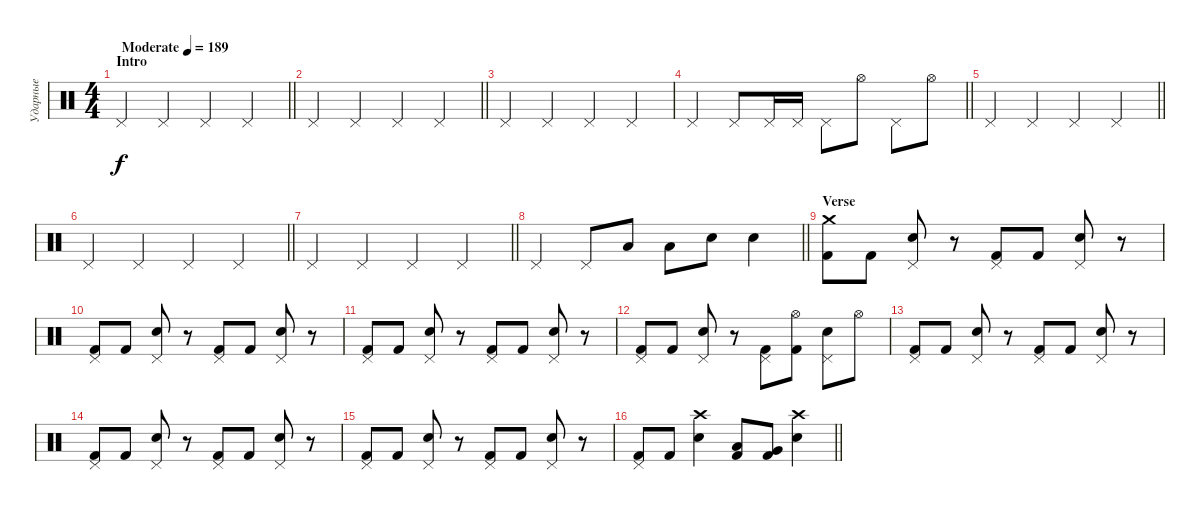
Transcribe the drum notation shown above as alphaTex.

\track ("Ударные" "Ударные") {instrument percussion}
\staff {score}
\articulation defaults
\ts (4 4)
\section ("" "Intro")
\tempo (189 "Moderate")
\clef neutral
\barLineRight lightlight
\ks c "Pedal Hi-Hat (hit)".4{dy f} "Pedal Hi-Hat (hit)".4 "Pedal Hi-Hat (hit)".4 "Pedal Hi-Hat (hit)".4
|
\barLineRight lightlight "Pedal Hi-Hat (hit)".4 "Pedal Hi-Hat (hit)".4 "Pedal Hi-Hat (hit)".4 "Pedal Hi-Hat (hit)".4
|
"Pedal Hi-Hat (hit)".4 "Pedal Hi-Hat (hit)".4 "Pedal Hi-Hat (hit)".4 "Pedal Hi-Hat (hit)".4 |
\barLineRight lightlight "Pedal Hi-Hat (hit)".4 "Pedal Hi-Hat (hit)".8 "Pedal Hi-Hat (hit)".16 "Pedal Hi-Hat (hit)".16 "Pedal Hi-Hat (hit)".8 "Hi-Hat (open)".8 "Pedal Hi-Hat (hit)".8 "Hi-Hat (open)".8
|
\barLineRight lightlight "Pedal Hi-Hat (hit)".4 "Pedal Hi-Hat (hit)".4 "Pedal Hi-Hat (hit)".4 "Pedal Hi-Hat (hit)".4
|
\barLineRight lightlight "Pedal Hi-Hat (hit)".4 "Pedal Hi-Hat (hit)".4 "Pedal Hi-Hat (hit)".4 "Pedal Hi-Hat (hit)".4
|
\barLineRight lightlight "Pedal Hi-Hat (hit)".4 "Pedal Hi-Hat (hit)".4 "Pedal Hi-Hat (hit)".4 "Pedal Hi-Hat (hit)".4
|
\barLineRight lightlight "Pedal Hi-Hat (hit)".4 "Pedal Hi-Hat (hit)".8 "Low Tom (hit)".8 "Low Tom (hit)".8 "Electric Snare (hit)".8 "Electric Snare (hit)".4
|
\section ("" "Verse")
("Crash medium (hit)" "Kick (hit) 2").8 "Kick (hit) 2".8 ("Pedal Hi-Hat (hit)" "Electric Snare (hit)").8 r.8 ("Pedal Hi-Hat (hit)" "Kick (hit) 2").8 "Kick (hit) 2".8 ("Pedal Hi-Hat (hit)" "Electric Snare (hit)").8 r.8 |
("Pedal Hi-Hat (hit)" "Kick (hit) 2").8 "Kick (hit) 2".8 ("Pedal Hi-Hat (hit)" "Electric Snare (hit)").8 r.8 ("Pedal Hi-Hat (hit)" "Kick (hit) 2").8 "Kick (hit) 2".8 ("Pedal Hi-Hat (hit)" "Electric Snare (hit)").8 r.8 |
("Pedal Hi-Hat (hit)" "Kick (hit) 2").8 "Kick (hit) 2".8 ("Pedal Hi-Hat (hit)" "Electric Snare (hit)").8 r.8 ("Pedal Hi-Hat (hit)" "Kick (hit) 2").8 "Kick (hit) 2".8 ("Pedal Hi-Hat (hit)" "Electric Snare (hit)").8 r.8 |
("Pedal Hi-Hat (hit)" "Kick (hit) 2").8 "Kick (hit) 2".8 ("Pedal Hi-Hat (hit)" "Electric Snare (hit)").8 r.8 ("Pedal Hi-Hat (hit)" "Kick (hit) 2").8 ("Hi-Hat (open)" "Kick (hit) 2").8 ("Pedal Hi-Hat (hit)" "Electric Snare (hit)").8 "Hi-Hat (open)".8 |
("Pedal Hi-Hat (hit)" "Kick (hit) 2").8 "Kick (hit) 2".8 ("Pedal Hi-Hat (hit)" "Electric Snare (hit)").8 r.8 ("Pedal Hi-Hat (hit)" "Kick (hit) 2").8 "Kick (hit) 2".8 ("Pedal Hi-Hat (hit)" "Electric Snare (hit)").8 r.8 |
("Pedal Hi-Hat (hit)" "Kick (hit) 2").8 "Kick (hit) 2".8 ("Pedal Hi-Hat (hit)" "Electric Snare (hit)").8 r.8 ("Pedal Hi-Hat (hit)" "Kick (hit) 2").8 "Kick (hit) 2".8 ("Pedal Hi-Hat (hit)" "Electric Snare (hit)").8 r.8 |
("Pedal Hi-Hat (hit)" "Kick (hit) 2").8 "Kick (hit) 2".8 ("Pedal Hi-Hat (hit)" "Electric Snare (hit)").8 r.8 ("Pedal Hi-Hat (hit)" "Kick (hit) 2").8 "Kick (hit) 2".8 ("Pedal Hi-Hat (hit)" "Electric Snare (hit)").8 r.8 |
\barLineRight lightlight
("Pedal Hi-Hat (hit)" "Kick (hit) 2").8 "Kick (hit) 2".8 ("Crash high (hit)" "Electric Snare (hit)").4 ("Low Tom (hit)" "Kick (hit) 2").8 ("Very Low Tom (hit)" "Kick (hit) 2").8 ("Crash high (hit)" "Electric Snare (hit)").4
